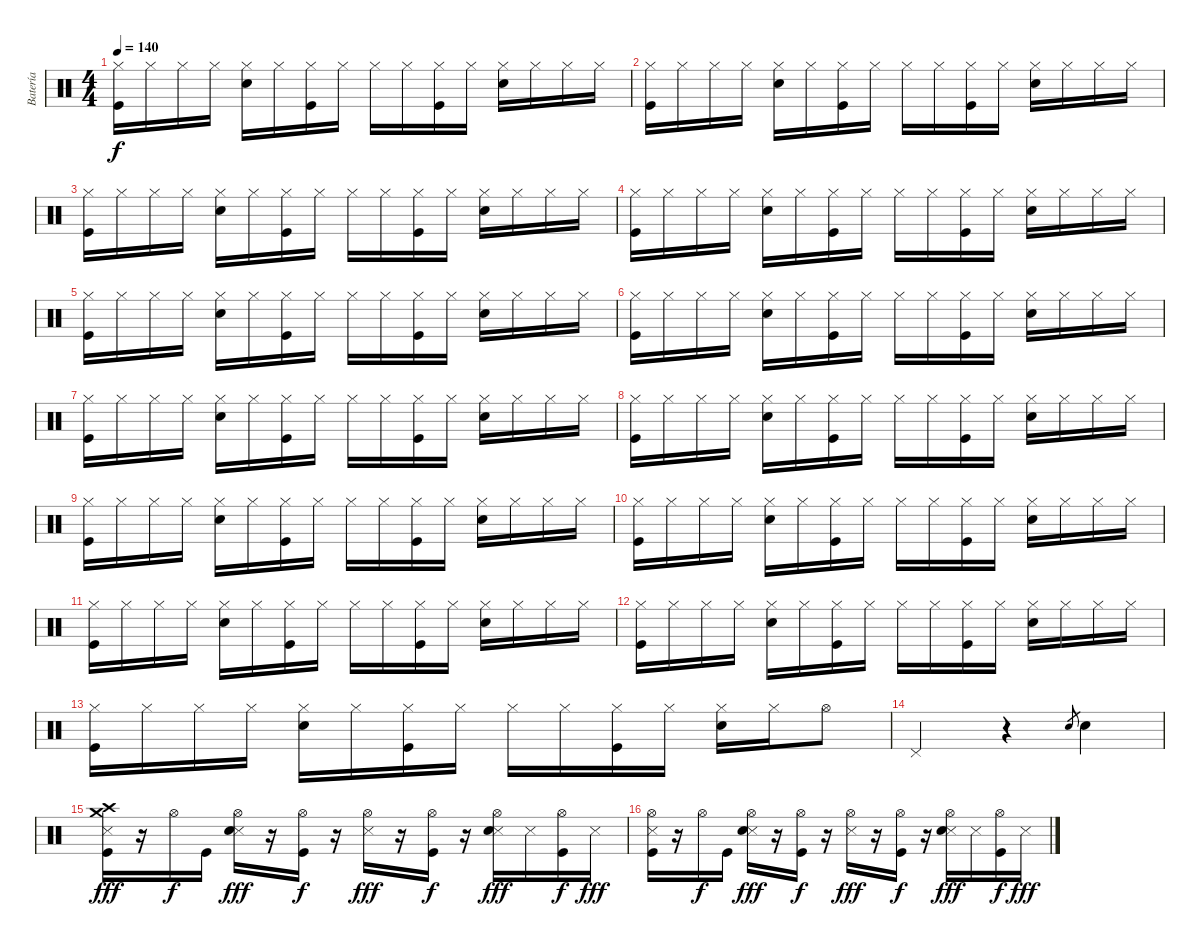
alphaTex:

\track ("Batería" "Batería") {instrument percussion}
\staff {score}
\articulation defaults
\ts (4 4)
\tempo 140
\clef neutral
\ks c
("Hi-Hat (closed)" "Kick (hit)").16{dy f} "Hi-Hat (closed)".16 "Hi-Hat (closed)".16 "Hi-Hat (closed)".16 ("Hi-Hat (closed)" "Snare (hit) 2").16 "Hi-Hat (closed)".16 ("Hi-Hat (closed)" "Kick (hit)").16 "Hi-Hat (closed)".16 "Hi-Hat (closed)".16 "Hi-Hat (closed)".16 ("Hi-Hat (closed)" "Kick (hit)").16 "Hi-Hat (closed)".16 ("Hi-Hat (closed)" "Snare (hit) 2").16 "Hi-Hat (closed)".16 "Hi-Hat (closed)".16 "Hi-Hat (closed)".16 |
("Hi-Hat (closed)" "Kick (hit)").16 "Hi-Hat (closed)".16 "Hi-Hat (closed)".16 "Hi-Hat (closed)".16 ("Hi-Hat (closed)" "Snare (hit) 2").16 "Hi-Hat (closed)".16 ("Hi-Hat (closed)" "Kick (hit)").16 "Hi-Hat (closed)".16 "Hi-Hat (closed)".16 "Hi-Hat (closed)".16 ("Hi-Hat (closed)" "Kick (hit)").16 "Hi-Hat (closed)".16 ("Hi-Hat (closed)" "Snare (hit) 2").16 "Hi-Hat (closed)".16 "Hi-Hat (closed)".16 "Hi-Hat (closed)".16 |
("Hi-Hat (closed)" "Kick (hit)").16 "Hi-Hat (closed)".16 "Hi-Hat (closed)".16 "Hi-Hat (closed)".16 ("Hi-Hat (closed)" "Snare (hit) 2").16 "Hi-Hat (closed)".16 ("Hi-Hat (closed)" "Kick (hit)").16 "Hi-Hat (closed)".16 "Hi-Hat (closed)".16 "Hi-Hat (closed)".16 ("Hi-Hat (closed)" "Kick (hit)").16 "Hi-Hat (closed)".16 ("Hi-Hat (closed)" "Snare (hit) 2").16 "Hi-Hat (closed)".16 "Hi-Hat (closed)".16 "Hi-Hat (closed)".16 |
("Hi-Hat (closed)" "Kick (hit)").16 "Hi-Hat (closed)".16 "Hi-Hat (closed)".16 "Hi-Hat (closed)".16 ("Hi-Hat (closed)" "Snare (hit) 2").16 "Hi-Hat (closed)".16 ("Hi-Hat (closed)" "Kick (hit)").16 "Hi-Hat (closed)".16 "Hi-Hat (closed)".16 "Hi-Hat (closed)".16 ("Hi-Hat (closed)" "Kick (hit)").16 "Hi-Hat (closed)".16 ("Hi-Hat (closed)" "Snare (hit) 2").16 "Hi-Hat (closed)".16 "Hi-Hat (closed)".16 "Hi-Hat (closed)".16 |
("Hi-Hat (closed)" "Kick (hit)").16 "Hi-Hat (closed)".16 "Hi-Hat (closed)".16 "Hi-Hat (closed)".16 ("Hi-Hat (closed)" "Snare (hit) 2").16 "Hi-Hat (closed)".16 ("Hi-Hat (closed)" "Kick (hit)").16 "Hi-Hat (closed)".16 "Hi-Hat (closed)".16 "Hi-Hat (closed)".16 ("Hi-Hat (closed)" "Kick (hit)").16 "Hi-Hat (closed)".16 ("Hi-Hat (closed)" "Snare (hit) 2").16 "Hi-Hat (closed)".16 "Hi-Hat (closed)".16 "Hi-Hat (closed)".16 |
("Hi-Hat (closed)" "Kick (hit)").16 "Hi-Hat (closed)".16 "Hi-Hat (closed)".16 "Hi-Hat (closed)".16 ("Hi-Hat (closed)" "Snare (hit) 2").16 "Hi-Hat (closed)".16 ("Hi-Hat (closed)" "Kick (hit)").16 "Hi-Hat (closed)".16 "Hi-Hat (closed)".16 "Hi-Hat (closed)".16 ("Hi-Hat (closed)" "Kick (hit)").16 "Hi-Hat (closed)".16 ("Hi-Hat (closed)" "Snare (hit) 2").16 "Hi-Hat (closed)".16 "Hi-Hat (closed)".16 "Hi-Hat (closed)".16 |
("Hi-Hat (closed)" "Kick (hit)").16 "Hi-Hat (closed)".16 "Hi-Hat (closed)".16 "Hi-Hat (closed)".16 ("Hi-Hat (closed)" "Snare (hit) 2").16 "Hi-Hat (closed)".16 ("Hi-Hat (closed)" "Kick (hit)").16 "Hi-Hat (closed)".16 "Hi-Hat (closed)".16 "Hi-Hat (closed)".16 ("Hi-Hat (closed)" "Kick (hit)").16 "Hi-Hat (closed)".16 ("Hi-Hat (closed)" "Snare (hit) 2").16 "Hi-Hat (closed)".16 "Hi-Hat (closed)".16 "Hi-Hat (closed)".16 |
("Hi-Hat (closed)" "Kick (hit)").16 "Hi-Hat (closed)".16 "Hi-Hat (closed)".16 "Hi-Hat (closed)".16 ("Hi-Hat (closed)" "Snare (hit) 2").16 "Hi-Hat (closed)".16 ("Hi-Hat (closed)" "Kick (hit)").16 "Hi-Hat (closed)".16 "Hi-Hat (closed)".16 "Hi-Hat (closed)".16 ("Hi-Hat (closed)" "Kick (hit)").16 "Hi-Hat (closed)".16 ("Hi-Hat (closed)" "Snare (hit) 2").16 "Hi-Hat (closed)".16 "Hi-Hat (closed)".16 "Hi-Hat (closed)".16 |
("Hi-Hat (closed)" "Kick (hit)").16 "Hi-Hat (closed)".16 "Hi-Hat (closed)".16 "Hi-Hat (closed)".16 ("Hi-Hat (closed)" "Snare (hit) 2").16 "Hi-Hat (closed)".16 ("Hi-Hat (closed)" "Kick (hit)").16 "Hi-Hat (closed)".16 "Hi-Hat (closed)".16 "Hi-Hat (closed)".16 ("Hi-Hat (closed)" "Kick (hit)").16 "Hi-Hat (closed)".16 ("Hi-Hat (closed)" "Snare (hit) 2").16 "Hi-Hat (closed)".16 "Hi-Hat (closed)".16 "Hi-Hat (closed)".16 |
("Hi-Hat (closed)" "Kick (hit)").16 "Hi-Hat (closed)".16 "Hi-Hat (closed)".16 "Hi-Hat (closed)".16 ("Hi-Hat (closed)" "Snare (hit) 2").16 "Hi-Hat (closed)".16 ("Hi-Hat (closed)" "Kick (hit)").16 "Hi-Hat (closed)".16 "Hi-Hat (closed)".16 "Hi-Hat (closed)".16 ("Hi-Hat (closed)" "Kick (hit)").16 "Hi-Hat (closed)".16 ("Hi-Hat (closed)" "Snare (hit) 2").16 "Hi-Hat (closed)".16 "Hi-Hat (closed)".16 "Hi-Hat (closed)".16 |
("Hi-Hat (closed)" "Kick (hit)").16 "Hi-Hat (closed)".16 "Hi-Hat (closed)".16 "Hi-Hat (closed)".16 ("Hi-Hat (closed)" "Snare (hit) 2").16 "Hi-Hat (closed)".16 ("Hi-Hat (closed)" "Kick (hit)").16 "Hi-Hat (closed)".16 "Hi-Hat (closed)".16 "Hi-Hat (closed)".16 ("Hi-Hat (closed)" "Kick (hit)").16 "Hi-Hat (closed)".16 ("Hi-Hat (closed)" "Snare (hit) 2").16 "Hi-Hat (closed)".16 "Hi-Hat (closed)".16 "Hi-Hat (closed)".16 |
("Hi-Hat (closed)" "Kick (hit)").16 "Hi-Hat (closed)".16 "Hi-Hat (closed)".16 "Hi-Hat (closed)".16 ("Hi-Hat (closed)" "Snare (hit) 2").16 "Hi-Hat (closed)".16 ("Hi-Hat (closed)" "Kick (hit)").16 "Hi-Hat (closed)".16 "Hi-Hat (closed)".16 "Hi-Hat (closed)".16 ("Hi-Hat (closed)" "Kick (hit)").16 "Hi-Hat (closed)".16 ("Hi-Hat (closed)" "Snare (hit) 2").16 "Hi-Hat (closed)".16 "Hi-Hat (closed)".16 "Hi-Hat (closed)".16 |
("Hi-Hat (closed)" "Kick (hit)").16 "Hi-Hat (closed)".16 "Hi-Hat (closed)".16 "Hi-Hat (closed)".16 ("Hi-Hat (closed)" "Snare (hit) 2").16 "Hi-Hat (closed)".16 ("Hi-Hat (closed)" "Kick (hit)").16 "Hi-Hat (closed)".16 "Hi-Hat (closed)".16 "Hi-Hat (closed)".16 ("Hi-Hat (closed)" "Kick (hit)").16 "Hi-Hat (closed)".16 ("Hi-Hat (closed)" "Snare (hit) 2").16 "Hi-Hat (closed)".16 "Hi-Hat (open)".8 |
"Pedal Hi-Hat (hit)".2 r.4 "Snare (hit) 2".8{gr} "Snare (hit) 2".4 |
("Metronome (hit)" "Crash medium (hit)" "Crash high (hit)" "Kick (hit)").16{dy fff} r.16 "Hi-Hat (open)".16{dy f} "Kick (hit)".16 ("Metronome (hit)" "Hi-Hat (open)" "Snare (hit) 2").16{dy fff} r.16 ("Hi-Hat (open)" "Kick (hit)").16{dy f} r.16 ("Metronome (hit)" "Hi-Hat (open)").16{dy fff} r.16 ("Hi-Hat (open)" "Kick (hit)").16{dy f} r.16 ("Metronome (hit)" "Hi-Hat (open)" "Snare (hit) 2").16{dy fff} "Metronome (hit)".16 ("Hi-Hat (open)" "Kick (hit)").16{dy f} "Metronome (hit)".16{dy fff} |
("Metronome (hit)" "Hi-Hat (open)" "Kick (hit)").16 r.16 "Hi-Hat (open)".16{dy f} "Kick (hit)".16 ("Metronome (hit)" "Hi-Hat (open)" "Snare (hit) 2").16{dy fff} r.16 ("Hi-Hat (open)" "Kick (hit)").16{dy f} r.16 ("Metronome (hit)" "Hi-Hat (open)").16{dy fff} r.16 ("Hi-Hat (open)" "Kick (hit)").16{dy f} r.16 ("Metronome (hit)" "Hi-Hat (open)" "Snare (hit) 2").16{dy fff} "Metronome (hit)".16 ("Hi-Hat (open)" "Kick (hit)").16{dy f} "Metronome (hit)".16{dy fff}
